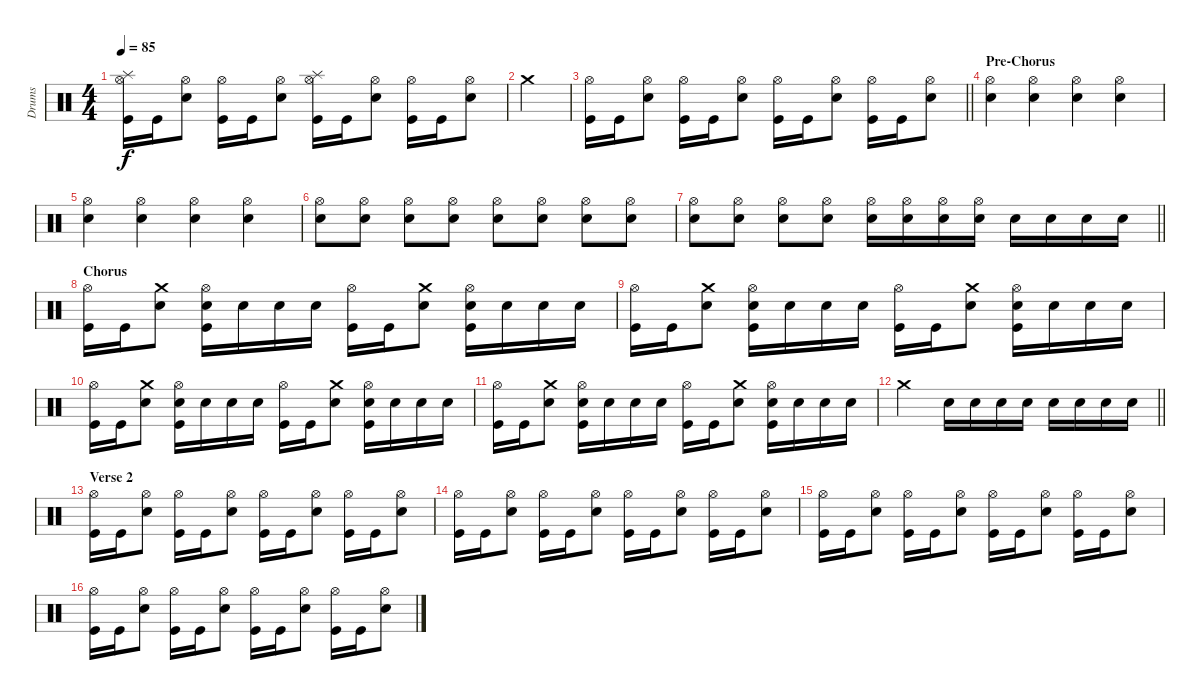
\track ("Drums" "Drums") {instrument percussion}
\staff {score}
\articulation defaults
\ts (4 4)
\tempo 85
\clef neutral
\ks c
("Splash (hit)" "Hi-Hat (open)" "Kick (hit)").16{dy f} "Kick (hit)".16 ("Hi-Hat (open)" "Snare (hit) 2").8 ("Hi-Hat (open)" "Kick (hit)").16 "Kick (hit)".16 ("Hi-Hat (open)" "Snare (hit) 2").8 ("Splash (hit)" "Hi-Hat (open)" "Kick (hit)").16 "Kick (hit)".16 ("Hi-Hat (open)" "Snare (hit) 2").8 ("Hi-Hat (open)" "Kick (hit)").16 "Kick (hit)".16 ("Hi-Hat (open)" "Snare (hit) 2").8 |
"Crash medium (hit)".4 |
\barLineRight lightlight
("Hi-Hat (open)" "Kick (hit)").16 "Kick (hit)".16 ("Hi-Hat (open)" "Snare (hit) 2").8 ("Hi-Hat (open)" "Kick (hit)").16 "Kick (hit)".16 ("Hi-Hat (open)" "Snare (hit) 2").8 ("Hi-Hat (open)" "Kick (hit)").16 "Kick (hit)".16 ("Hi-Hat (open)" "Snare (hit) 2").8 ("Hi-Hat (open)" "Kick (hit)").16 "Kick (hit)".16 ("Hi-Hat (open)" "Snare (hit) 2").8 |
\section ("" "Pre-Chorus")
("Hi-Hat (open)" "Snare (hit) 2").4 ("Hi-Hat (open)" "Snare (hit) 2").4 ("Hi-Hat (open)" "Snare (hit) 2").4 ("Hi-Hat (open)" "Snare (hit) 2").4 |
("Hi-Hat (open)" "Snare (hit) 2").4 ("Hi-Hat (open)" "Snare (hit) 2").4 ("Hi-Hat (open)" "Snare (hit) 2").4 ("Hi-Hat (open)" "Snare (hit) 2").4 |
("Hi-Hat (open)" "Snare (hit) 2").8 ("Hi-Hat (open)" "Snare (hit) 2").8 ("Hi-Hat (open)" "Snare (hit) 2").8 ("Hi-Hat (open)" "Snare (hit) 2").8 ("Hi-Hat (open)" "Snare (hit) 2").8 ("Hi-Hat (open)" "Snare (hit) 2").8 ("Hi-Hat (open)" "Snare (hit) 2").8 ("Hi-Hat (open)" "Snare (hit) 2").8 |
\barLineRight lightlight
("Hi-Hat (open)" "Snare (hit)").8 ("Hi-Hat (open)" "Snare (hit) 2").8 ("Hi-Hat (open)" "Snare (hit) 2").8 ("Hi-Hat (open)" "Snare (hit) 2").8 ("Hi-Hat (open)" "Snare (hit) 2").16 ("Hi-Hat (open)" "Snare (hit) 2").16 ("Hi-Hat (open)" "Snare (hit) 2").16 ("Hi-Hat (open)" "Snare (hit) 2").16 "Snare (hit) 2".16 "Snare (hit) 2".16 "Snare (hit) 2".16 "Snare (hit) 2".16 |
\section ("" "Chorus")
("Hi-Hat (open)" "Kick (hit)").16 "Kick (hit)".16 ("Crash medium (hit)" "Snare (hit) 2").8 ("Hi-Hat (open)" "Snare (hit) 2" "Kick (hit)").16 "Snare (hit) 2".16 "Snare (hit) 2".16 "Snare (hit) 2".16 ("Hi-Hat (open)" "Kick (hit)").16 "Kick (hit)".16 ("Crash medium (hit)" "Snare (hit) 2").8 ("Hi-Hat (open)" "Snare (hit) 2" "Kick (hit)").16 "Snare (hit) 2".16 "Snare (hit) 2".16 "Snare (hit) 2".16 |
("Hi-Hat (open)" "Kick (hit)").16 "Kick (hit)".16 ("Crash medium (hit)" "Snare (hit) 2").8 ("Hi-Hat (open)" "Snare (hit) 2" "Kick (hit)").16 "Snare (hit) 2".16 "Snare (hit) 2".16 "Snare (hit) 2".16 ("Hi-Hat (open)" "Kick (hit)").16 "Kick (hit)".16 ("Crash medium (hit)" "Snare (hit) 2").8 ("Hi-Hat (open)" "Snare (hit) 2" "Kick (hit)").16 "Snare (hit) 2".16 "Snare (hit) 2".16 "Snare (hit) 2".16 |
("Hi-Hat (open)" "Kick (hit)").16 "Kick (hit)".16 ("Crash medium (hit)" "Snare (hit) 2").8 ("Hi-Hat (open)" "Snare (hit) 2" "Kick (hit)").16 "Snare (hit) 2".16 "Snare (hit) 2".16 "Snare (hit) 2".16 ("Hi-Hat (open)" "Kick (hit)").16 "Kick (hit)".16 ("Crash medium (hit)" "Snare (hit) 2").8 ("Hi-Hat (open)" "Snare (hit) 2" "Kick (hit)").16 "Snare (hit) 2".16 "Snare (hit) 2".16 "Snare (hit) 2".16 |
("Hi-Hat (open)" "Kick (hit)").16 "Kick (hit)".16 ("Crash medium (hit)" "Snare (hit) 2").8 ("Hi-Hat (open)" "Snare (hit) 2" "Kick (hit)").16 "Snare (hit) 2".16 "Snare (hit) 2".16 "Snare (hit) 2".16 ("Hi-Hat (open)" "Kick (hit)").16 "Kick (hit)".16 ("Crash medium (hit)" "Snare (hit) 2").8 ("Hi-Hat (open)" "Snare (hit) 2" "Kick (hit)").16 "Snare (hit) 2".16 "Snare (hit) 2".16 "Snare (hit) 2".16 |
\barLineRight lightlight "Crash medium (hit)".2 "Snare (hit) 2".16 "Snare (hit) 2".16 "Snare (hit) 2".16 "Snare (hit) 2".16 "Snare (hit) 2".16 "Snare (hit) 2".16 "Snare (hit) 2".16 "Snare (hit) 2".16
|
\section ("" "Verse 2")
("Hi-Hat (open)" "Kick (hit)").16 "Kick (hit)".16 ("Hi-Hat (open)" "Snare (hit) 2").8 ("Hi-Hat (open)" "Kick (hit)").16 "Kick (hit)".16 ("Hi-Hat (open)" "Snare (hit) 2").8 ("Hi-Hat (open)" "Kick (hit)").16 "Kick (hit)".16 ("Hi-Hat (open)" "Snare (hit) 2").8 ("Hi-Hat (open)" "Kick (hit)").16 "Kick (hit)".16 ("Hi-Hat (open)" "Snare (hit) 2").8 |
("Hi-Hat (open)" "Kick (hit)").16 "Kick (hit)".16 ("Hi-Hat (open)" "Snare (hit) 2").8 ("Hi-Hat (open)" "Kick (hit)").16 "Kick (hit)".16 ("Hi-Hat (open)" "Snare (hit) 2").8 ("Hi-Hat (open)" "Kick (hit)").16 "Kick (hit)".16 ("Hi-Hat (open)" "Snare (hit) 2").8 ("Hi-Hat (open)" "Kick (hit)").16 "Kick (hit)".16 ("Hi-Hat (open)" "Snare (hit) 2").8 |
("Hi-Hat (open)" "Kick (hit)").16 "Kick (hit)".16 ("Hi-Hat (open)" "Snare (hit) 2").8 ("Hi-Hat (open)" "Kick (hit)").16 "Kick (hit)".16 ("Hi-Hat (open)" "Snare (hit) 2").8 ("Hi-Hat (open)" "Kick (hit)").16 "Kick (hit)".16 ("Hi-Hat (open)" "Snare (hit) 2").8 ("Hi-Hat (open)" "Kick (hit)").16 "Kick (hit)".16 ("Hi-Hat (open)" "Snare (hit) 2").8 |
("Hi-Hat (open)" "Kick (hit)").16 "Kick (hit)".16 ("Hi-Hat (open)" "Snare (hit) 2").8 ("Hi-Hat (open)" "Kick (hit)").16 "Kick (hit)".16 ("Hi-Hat (open)" "Snare (hit) 2").8 ("Hi-Hat (open)" "Kick (hit)").16 "Kick (hit)".16 ("Hi-Hat (open)" "Snare (hit) 2").8 ("Hi-Hat (open)" "Kick (hit)").16 "Kick (hit)".16 ("Hi-Hat (open)" "Snare (hit) 2").8
